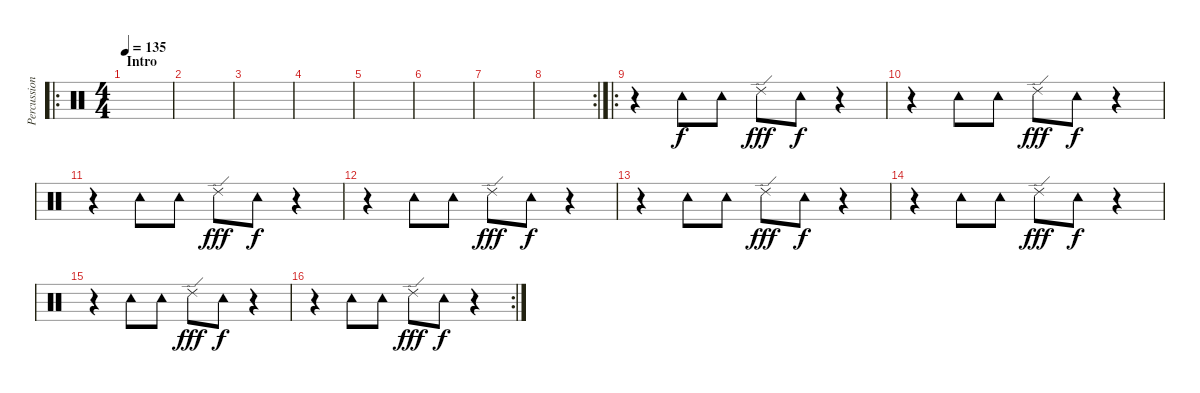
\track ("Percussion" "Percussion") {instrument percussion}
\staff {score}
\articulation defaults
\ro
\ts (4 4)
\section ("" "Intro")
\tempo 135
\clef neutral
\ks c
|
|
|
|
|
|
|
\rc 2
|
\ro
r.4 "Tambourine (hit)".8 "Tambourine (hit)".8 "Ride (edge) 2".8{dy fff} "Tambourine (hit)".8{dy f} r.4 |
r.4 "Tambourine (hit)".8 "Tambourine (hit)".8 "Ride (edge) 2".8{dy fff} "Tambourine (hit)".8{dy f} r.4 |
r.4 "Tambourine (hit)".8 "Tambourine (hit)".8 "Ride (edge) 2".8{dy fff} "Tambourine (hit)".8{dy f} r.4 |
r.4 "Tambourine (hit)".8 "Tambourine (hit)".8 "Ride (edge) 2".8{dy fff} "Tambourine (hit)".8{dy f} r.4 |
r.4 "Tambourine (hit)".8 "Tambourine (hit)".8 "Ride (edge) 2".8{dy fff} "Tambourine (hit)".8{dy f} r.4 |
r.4 "Tambourine (hit)".8 "Tambourine (hit)".8 "Ride (edge) 2".8{dy fff} "Tambourine (hit)".8{dy f} r.4 |
r.4 "Tambourine (hit)".8 "Tambourine (hit)".8 "Ride (edge) 2".8{dy fff} "Tambourine (hit)".8{dy f} r.4 |
\rc 2
r.4 "Tambourine (hit)".8 "Tambourine (hit)".8 "Ride (edge) 2".8{dy fff} "Tambourine (hit)".8{dy f} r.4
